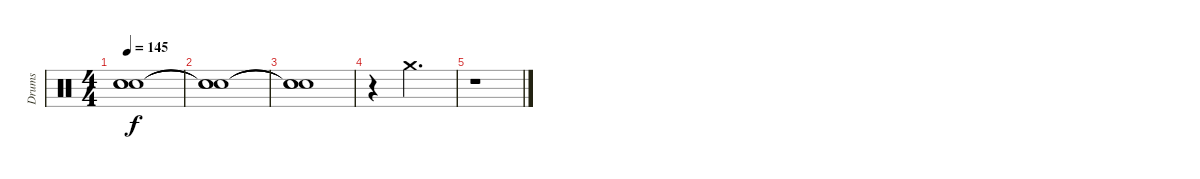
\track ("Drums" "Drums") {instrument percussion}
\staff {score}
\articulation defaults
\ts (4 4)
\tempo 145
\clef neutral
\ks c
("Snare (hit)"{t} "Snare (hit)"{t} "Snare (hit)"{t}).1{dy f} |
("Snare (hit)"{t} "Snare (hit)"{t} "Snare (hit)"{t}).1 |
("Snare (hit)"{t} "Snare (hit)"{t} "Snare (hit)"{t}).1 |
r.4 "Crash medium (hit)".2{d} |
r.1
